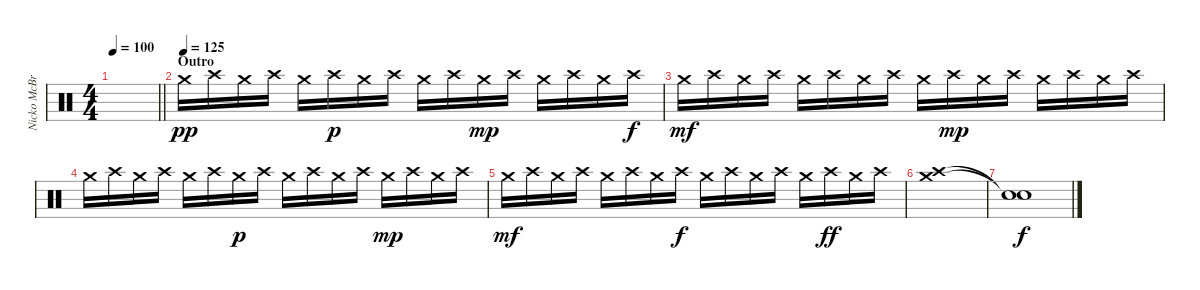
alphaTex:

\track ("Nicko McBrain" "Nicko McBr") {instrument percussion}
\staff {score}
\articulation defaults
\ts (4 4)
\tempo 100
\clef neutral
\barLineRight lightlight
\ks c
|
\section ("" "Outro")
\tempo (125)
"Crash medium (hit)".16{dy pp} "Crash high (hit)".16 "Crash medium (hit)".16 "Crash high (hit)".16 "Crash medium (hit)".16 "Crash high (hit)".16{dy p} "Crash medium (hit)".16 "Crash high (hit)".16 "Crash medium (hit)".16 "Crash high (hit)".16 "Crash medium (hit)".16{dy mp} "Crash high (hit)".16 "Crash medium (hit)".16 "Crash high (hit)".16 "Crash medium (hit)".16 "Crash high (hit)".16{dy f} |
"Crash medium (hit)".16{dy mf} "Crash high (hit)".16 "Crash medium (hit)".16 "Crash high (hit)".16 "Crash medium (hit)".16 "Crash high (hit)".16 "Crash medium (hit)".16 "Crash high (hit)".16 "Crash medium (hit)".16 "Crash high (hit)".16{dy mp} "Crash medium (hit)".16 "Crash high (hit)".16 "Crash medium (hit)".16 "Crash high (hit)".16 "Crash medium (hit)".16 "Crash high (hit)".16 |
"Crash medium (hit)".16 "Crash high (hit)".16 "Crash medium (hit)".16 "Crash high (hit)".16 "Crash medium (hit)".16 "Crash high (hit)".16 "Crash medium (hit)".16{dy p} "Crash high (hit)".16 "Crash medium (hit)".16 "Crash high (hit)".16 "Crash medium (hit)".16 "Crash high (hit)".16 "Crash medium (hit)".16{dy mp} "Crash high (hit)".16 "Crash medium (hit)".16 "Crash high (hit)".16 |
"Crash medium (hit)".16{dy mf} "Crash high (hit)".16 "Crash medium (hit)".16 "Crash high (hit)".16 "Crash medium (hit)".16 "Crash high (hit)".16 "Crash medium (hit)".16 "Crash high (hit)".16{dy f} "Crash medium (hit)".16 "Crash high (hit)".16 "Crash medium (hit)".16 "Crash high (hit)".16 "Crash medium (hit)".16 "Crash high (hit)".16{dy ff} "Crash medium (hit)".16 "Crash high (hit)".16 |
("Crash medium (hit)" "Crash high (hit)").1 |
("Snare (hit)"{t} "Snare (hit)"{t}).1{dy f}
